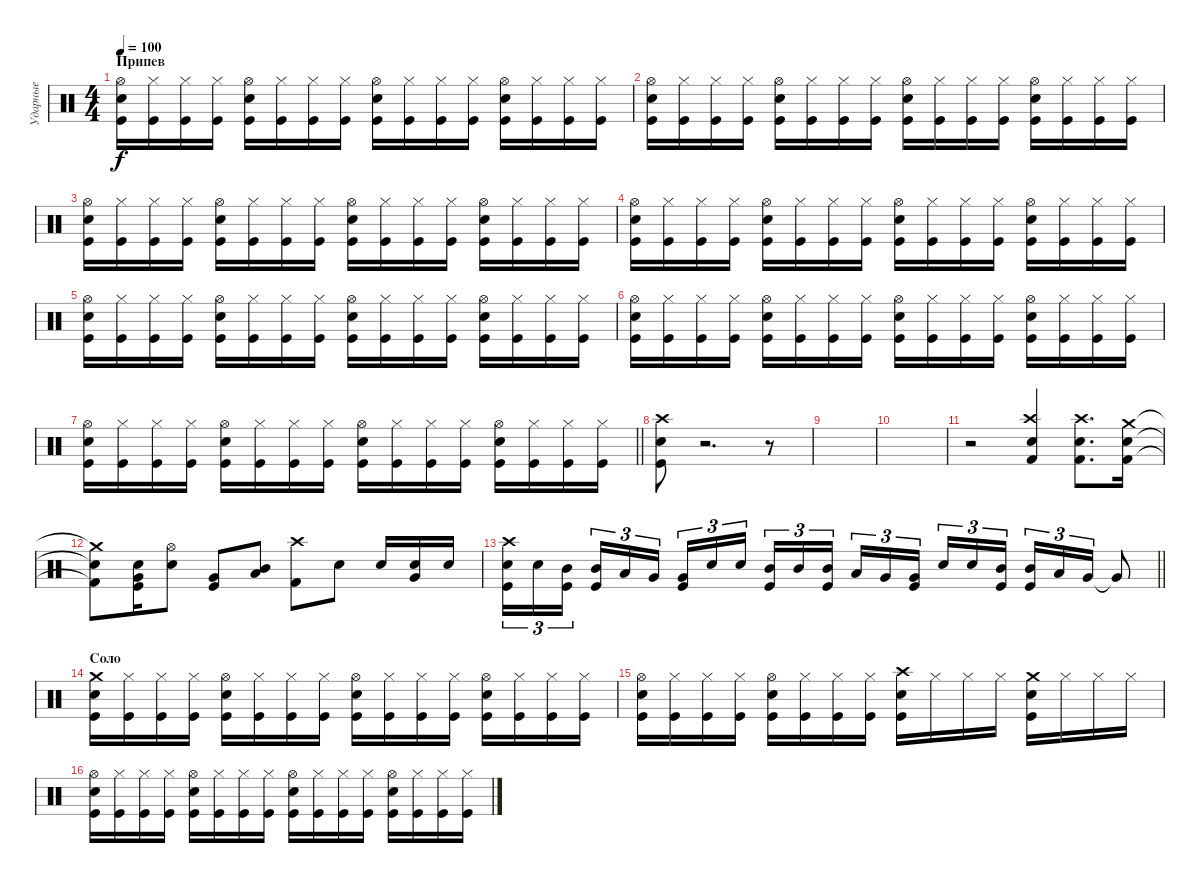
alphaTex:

\track ("Ударные" "Ударные") {instrument percussion}
\staff {score}
\articulation defaults
\ts (4 4)
\section ("" "Припев")
\tempo 100
\clef neutral
\ks c
("Kick (hit)" "Snare (hit) 2" "Hi-Hat (open)").16{dy f} ("Kick (hit)" "Hi-Hat (closed)").16 ("Kick (hit)" "Hi-Hat (closed)").16 ("Kick (hit)" "Hi-Hat (closed)").16 ("Kick (hit)" "Snare (hit) 2" "Hi-Hat (open)").16 ("Kick (hit)" "Hi-Hat (closed)").16 ("Kick (hit)" "Hi-Hat (closed)").16 ("Kick (hit)" "Hi-Hat (closed)").16 ("Kick (hit)" "Snare (hit) 2" "Hi-Hat (open)").16 ("Kick (hit)" "Hi-Hat (closed)").16 ("Kick (hit)" "Hi-Hat (closed)").16 ("Kick (hit)" "Hi-Hat (closed)").16 ("Kick (hit)" "Snare (hit) 2" "Hi-Hat (open)").16 ("Kick (hit)" "Hi-Hat (closed)").16 ("Kick (hit)" "Hi-Hat (closed)").16 ("Kick (hit)" "Hi-Hat (closed)").16 |
("Kick (hit)" "Snare (hit) 2" "Hi-Hat (open)").16 ("Kick (hit)" "Hi-Hat (closed)").16 ("Kick (hit)" "Hi-Hat (closed)").16 ("Kick (hit)" "Hi-Hat (closed)").16 ("Kick (hit)" "Snare (hit) 2" "Hi-Hat (open)").16 ("Kick (hit)" "Hi-Hat (closed)").16 ("Kick (hit)" "Hi-Hat (closed)").16 ("Kick (hit)" "Hi-Hat (closed)").16 ("Kick (hit)" "Snare (hit) 2" "Hi-Hat (open)").16 ("Kick (hit)" "Hi-Hat (closed)").16 ("Kick (hit)" "Hi-Hat (closed)").16 ("Kick (hit)" "Hi-Hat (closed)").16 ("Kick (hit)" "Snare (hit) 2" "Hi-Hat (open)").16 ("Kick (hit)" "Hi-Hat (closed)").16 ("Kick (hit)" "Hi-Hat (closed)").16 ("Kick (hit)" "Hi-Hat (closed)").16 |
("Kick (hit)" "Snare (hit) 2" "Hi-Hat (open)").16 ("Kick (hit)" "Hi-Hat (closed)").16 ("Kick (hit)" "Hi-Hat (closed)").16 ("Kick (hit)" "Hi-Hat (closed)").16 ("Kick (hit)" "Snare (hit) 2" "Hi-Hat (open)").16 ("Kick (hit)" "Hi-Hat (closed)").16 ("Kick (hit)" "Hi-Hat (closed)").16 ("Kick (hit)" "Hi-Hat (closed)").16 ("Kick (hit)" "Snare (hit) 2" "Hi-Hat (open)").16 ("Kick (hit)" "Hi-Hat (closed)").16 ("Kick (hit)" "Hi-Hat (closed)").16 ("Kick (hit)" "Hi-Hat (closed)").16 ("Kick (hit)" "Snare (hit) 2" "Hi-Hat (open)").16 ("Kick (hit)" "Hi-Hat (closed)").16 ("Kick (hit)" "Hi-Hat (closed)").16 ("Kick (hit)" "Hi-Hat (closed)").16 |
("Kick (hit)" "Snare (hit) 2" "Hi-Hat (open)").16 ("Kick (hit)" "Hi-Hat (closed)").16 ("Kick (hit)" "Hi-Hat (closed)").16 ("Kick (hit)" "Hi-Hat (closed)").16 ("Kick (hit)" "Snare (hit) 2" "Hi-Hat (open)").16 ("Kick (hit)" "Hi-Hat (closed)").16 ("Kick (hit)" "Hi-Hat (closed)").16 ("Kick (hit)" "Hi-Hat (closed)").16 ("Kick (hit)" "Snare (hit) 2" "Hi-Hat (open)").16 ("Kick (hit)" "Hi-Hat (closed)").16 ("Kick (hit)" "Hi-Hat (closed)").16 ("Kick (hit)" "Hi-Hat (closed)").16 ("Kick (hit)" "Snare (hit) 2" "Hi-Hat (open)").16 ("Kick (hit)" "Hi-Hat (closed)").16 ("Kick (hit)" "Hi-Hat (closed)").16 ("Kick (hit)" "Hi-Hat (closed)").16 |
("Kick (hit)" "Snare (hit) 2" "Hi-Hat (open)").16 ("Kick (hit)" "Hi-Hat (closed)").16 ("Kick (hit)" "Hi-Hat (closed)").16 ("Kick (hit)" "Hi-Hat (closed)").16 ("Kick (hit)" "Snare (hit) 2" "Hi-Hat (open)").16 ("Kick (hit)" "Hi-Hat (closed)").16 ("Kick (hit)" "Hi-Hat (closed)").16 ("Kick (hit)" "Hi-Hat (closed)").16 ("Kick (hit)" "Snare (hit) 2" "Hi-Hat (open)").16 ("Kick (hit)" "Hi-Hat (closed)").16 ("Kick (hit)" "Hi-Hat (closed)").16 ("Kick (hit)" "Hi-Hat (closed)").16 ("Kick (hit)" "Snare (hit) 2" "Hi-Hat (open)").16 ("Kick (hit)" "Hi-Hat (closed)").16 ("Kick (hit)" "Hi-Hat (closed)").16 ("Kick (hit)" "Hi-Hat (closed)").16 |
("Kick (hit)" "Snare (hit) 2" "Hi-Hat (open)").16 ("Kick (hit)" "Hi-Hat (closed)").16 ("Kick (hit)" "Hi-Hat (closed)").16 ("Kick (hit)" "Hi-Hat (closed)").16 ("Kick (hit)" "Snare (hit) 2" "Hi-Hat (open)").16 ("Kick (hit)" "Hi-Hat (closed)").16 ("Kick (hit)" "Hi-Hat (closed)").16 ("Kick (hit)" "Hi-Hat (closed)").16 ("Kick (hit)" "Snare (hit) 2" "Hi-Hat (open)").16 ("Kick (hit)" "Hi-Hat (closed)").16 ("Kick (hit)" "Hi-Hat (closed)").16 ("Kick (hit)" "Hi-Hat (closed)").16 ("Kick (hit)" "Snare (hit) 2" "Hi-Hat (open)").16 ("Kick (hit)" "Hi-Hat (closed)").16 ("Kick (hit)" "Hi-Hat (closed)").16 ("Kick (hit)" "Hi-Hat (closed)").16 |
\barLineRight lightlight
("Kick (hit)" "Snare (hit) 2" "Hi-Hat (open)").16 ("Kick (hit)" "Hi-Hat (closed)").16 ("Kick (hit)" "Hi-Hat (closed)").16 ("Kick (hit)" "Hi-Hat (closed)").16 ("Kick (hit)" "Snare (hit) 2" "Hi-Hat (open)").16 ("Kick (hit)" "Hi-Hat (closed)").16 ("Kick (hit)" "Hi-Hat (closed)").16 ("Kick (hit)" "Hi-Hat (closed)").16 ("Kick (hit)" "Snare (hit) 2" "Hi-Hat (open)").16 ("Kick (hit)" "Hi-Hat (closed)").16 ("Kick (hit)" "Hi-Hat (closed)").16 ("Kick (hit)" "Hi-Hat (closed)").16 ("Kick (hit)" "Snare (hit) 2" "Hi-Hat (open)").16 ("Kick (hit)" "Hi-Hat (closed)").16 ("Kick (hit)" "Hi-Hat (closed)").16 ("Kick (hit)" "Hi-Hat (closed)").16 |
("Crash high (hit)" "Kick (hit)" "Snare (hit) 2").8 r.2{d} r.8 |
|
|
r.2 ("Crash high (hit)" "Kick (hit) 2" "Snare (hit) 2").4 ("Crash high (hit)" "Kick (hit) 2" "Snare (hit) 2").8{d} ("Crash medium (hit)" "Kick (hit) 2" "Snare (hit) 2").16 |
("Crash medium (hit)"{t} "Kick (hit) 2"{t} "Snare (hit) 2"{t}).8 ("Snare (hit) 2" "Very Low Tom (hit)" "Kick (hit)").16 ("Hi-Hat (open)" "Snare (hit) 2").8 ("Very Low Tom (hit)" "Kick (hit)").8 ("Mid Tom (hit)" "Low Tom (hit)").8 ("Crash high (hit)" "Kick (hit) 2").8 "Electric Snare (hit)".8 "Electric Snare (hit)".16 ("Very Low Tom (hit)" "Electric Snare (hit)").16 "Electric Snare (hit)".16 |
\barLineRight lightlight
("Crash high (hit)" "Snare (hit) 2" "Kick (hit)").16{tu (3 2)} "Snare (hit) 2".16{tu (3 2)} ("Mid Tom (hit)" "Kick (hit)").16{tu (3 2) beam splitsecondary} ("Mid Tom (hit)" "Kick (hit)").16{tu (3 2)} "Low Tom (hit)".16{tu (3 2)} "Very Low Tom (hit)".16{tu (3 2)} ("Very Low Tom (hit)" "Kick (hit)").16{tu (3 2)} "Snare (hit) 2".16{tu (3 2)} "Snare (hit) 2".16{tu (3 2) beam splitsecondary} ("Mid Tom (hit)" "Kick (hit)").16{tu (3 2)} "Mid Tom (hit)".16{tu (3 2)} ("Mid Tom (hit)" "Kick (hit)").16{tu (3 2)} "Low Tom (hit)".16{tu (3 2)} "Very Low Tom (hit)".16{tu (3 2)} ("Very Low Tom (hit)" "Kick (hit)").16{tu (3 2) beam splitsecondary} "Snare (hit) 2".16{tu (3 2)} "Snare (hit) 2".16{tu (3 2)} ("Mid Tom (hit)" "Kick (hit)").16{tu (3 2)} ("Mid Tom (hit)" "Kick (hit)").16{tu (3 2)} "Low Tom (hit)".16{tu (3 2)} "Very Low Tom (hit)".16{tu (3 2)} "Very Low Tom (hit)"{t}.8 |
\section ("" "Соло")
("Kick (hit)" "Snare (hit) 2" "Crash medium (hit)").16 ("Kick (hit)" "Hi-Hat (closed)").16 ("Kick (hit)" "Hi-Hat (closed)").16 ("Kick (hit)" "Hi-Hat (closed)").16 ("Kick (hit)" "Snare (hit) 2" "Hi-Hat (open)").16 ("Kick (hit)" "Hi-Hat (closed)").16 ("Kick (hit)" "Hi-Hat (closed)").16 ("Kick (hit)" "Hi-Hat (closed)").16 ("Kick (hit)" "Snare (hit) 2" "Hi-Hat (open)").16 ("Kick (hit)" "Hi-Hat (closed)").16 ("Kick (hit)" "Hi-Hat (closed)").16 ("Kick (hit)" "Hi-Hat (closed)").16 ("Kick (hit)" "Snare (hit) 2" "Hi-Hat (open)").16 ("Kick (hit)" "Hi-Hat (closed)").16 ("Kick (hit)" "Hi-Hat (closed)").16 ("Kick (hit)" "Hi-Hat (closed)").16 |
("Kick (hit)" "Snare (hit) 2" "Hi-Hat (open)").16 ("Kick (hit)" "Hi-Hat (closed)").16 ("Kick (hit)" "Hi-Hat (closed)").16 ("Kick (hit)" "Hi-Hat (closed)").16 ("Kick (hit)" "Snare (hit) 2" "Hi-Hat (open)").16 ("Kick (hit)" "Hi-Hat (closed)").16 ("Kick (hit)" "Hi-Hat (closed)").16 ("Kick (hit)" "Hi-Hat (closed)").16 ("Crash high (hit)" "Kick (hit)" "Snare (hit) 2").16 "Hi-Hat (closed)".16 "Hi-Hat (closed)".16 "Hi-Hat (closed)".16 ("Crash medium (hit)" "Kick (hit)" "Snare (hit) 2").16 "Hi-Hat (closed)".16 "Hi-Hat (closed)".16 "Hi-Hat (closed)".16 |
("Kick (hit)" "Snare (hit) 2" "Hi-Hat (open)").16 ("Kick (hit)" "Hi-Hat (closed)").16 ("Kick (hit)" "Hi-Hat (closed)").16 ("Kick (hit)" "Hi-Hat (closed)").16 ("Kick (hit)" "Snare (hit) 2" "Hi-Hat (open)").16 ("Kick (hit)" "Hi-Hat (closed)").16 ("Kick (hit)" "Hi-Hat (closed)").16 ("Kick (hit)" "Hi-Hat (closed)").16 ("Kick (hit)" "Snare (hit) 2" "Hi-Hat (open)").16 ("Kick (hit)" "Hi-Hat (closed)").16 ("Kick (hit)" "Hi-Hat (closed)").16 ("Kick (hit)" "Hi-Hat (closed)").16 ("Kick (hit)" "Snare (hit) 2" "Hi-Hat (open)").16 ("Kick (hit)" "Hi-Hat (closed)").16 ("Kick (hit)" "Hi-Hat (closed)").16 ("Kick (hit)" "Hi-Hat (closed)").16
